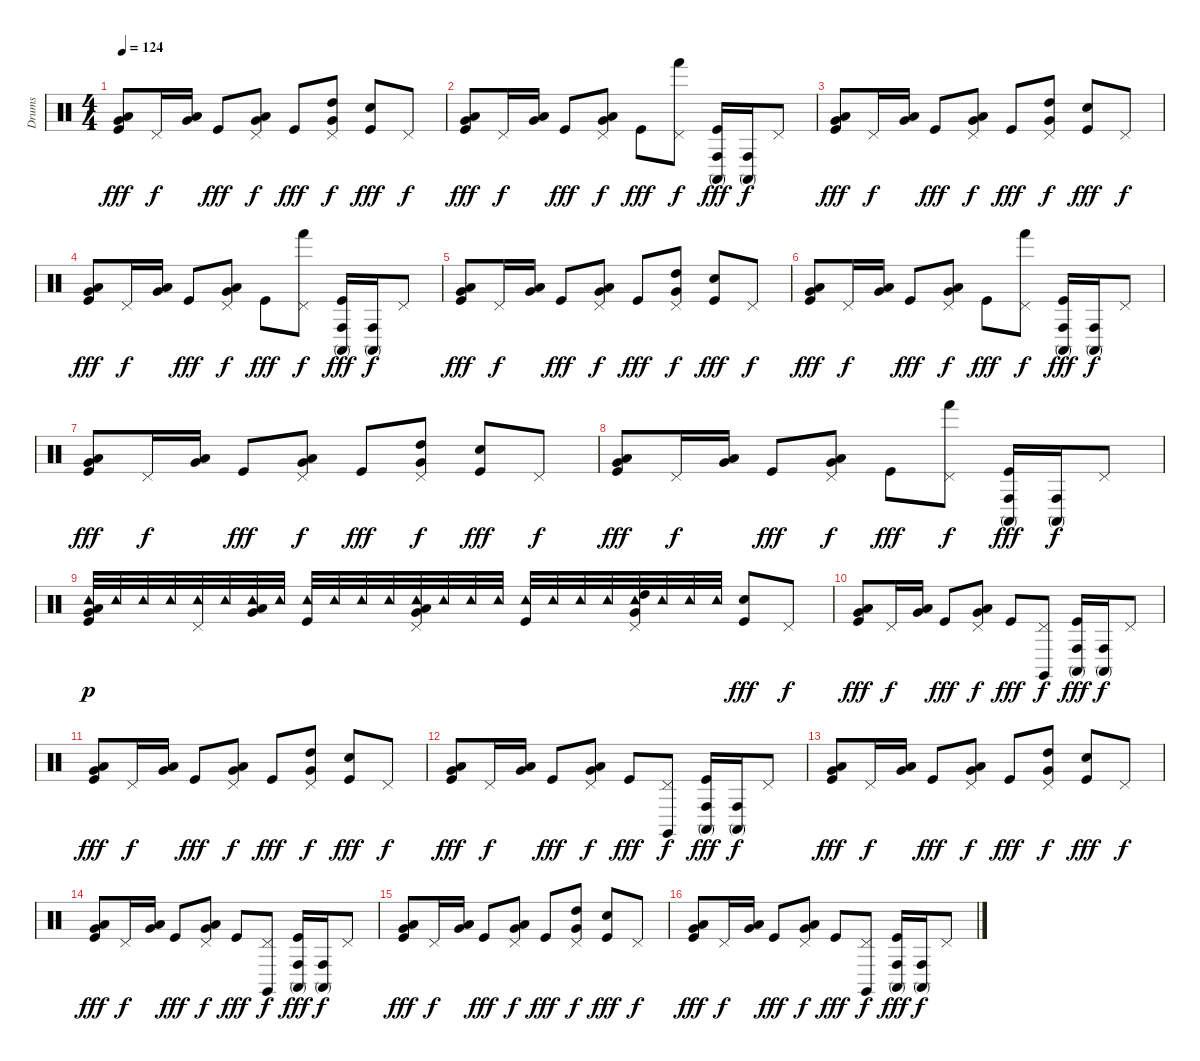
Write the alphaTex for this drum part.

\track ("Drums" "Drums") {instrument percussion}
\staff {score}
\articulation defaults
\ts (4 4)
\tempo 124
\clef neutral
\ks c
("Kick (hit)" "Very Low Tom (hit)" "Low Tom (hit)").8{dy fff} "Pedal Hi-Hat (hit)".16{dy f} ("Very Low Tom (hit)" "Low Tom (hit)").16 "Kick (hit)".8{dy fff} ("Pedal Hi-Hat (hit)" "Very Low Tom (hit)" "Low Tom (hit)").8{dy f} "Kick (hit)".8{dy fff} ("Pedal Hi-Hat (hit)" "High Tom (hit)" "Very Low Tom (hit)").8{dy f} ("Kick (hit)" "Electric Snare (hit)").8{dy fff} "Pedal Hi-Hat (hit)".8{dy f} |
("Kick (hit)" "Very Low Tom (hit)" "Low Tom (hit)").8{dy fff} "Pedal Hi-Hat (hit)".16{dy f} ("Very Low Tom (hit)" "Low Tom (hit)").16 "Kick (hit)".8{dy fff} ("Pedal Hi-Hat (hit)" "Very Low Tom (hit)" "Low Tom (hit)").8{dy f} "Kick (hit)".8{dy fff} ("Pedal Hi-Hat (hit)" "Hand (hit)").8{dy f} ("Kick (hit)" "Conga high (mute)" "Conga high (hit)").16{dy fff} ("Conga high (mute)" "Conga high (hit)").16{dy f} "Pedal Hi-Hat (hit)".8 |
("Kick (hit)" "Very Low Tom (hit)" "Low Tom (hit)").8{dy fff} "Pedal Hi-Hat (hit)".16{dy f} ("Very Low Tom (hit)" "Low Tom (hit)").16 "Kick (hit)".8{dy fff} ("Pedal Hi-Hat (hit)" "Very Low Tom (hit)" "Low Tom (hit)").8{dy f} "Kick (hit)".8{dy fff} ("Pedal Hi-Hat (hit)" "High Tom (hit)" "Very Low Tom (hit)").8{dy f} ("Kick (hit)" "Electric Snare (hit)").8{dy fff} "Pedal Hi-Hat (hit)".8{dy f} |
("Kick (hit)" "Very Low Tom (hit)" "Low Tom (hit)").8{dy fff} "Pedal Hi-Hat (hit)".16{dy f} ("Very Low Tom (hit)" "Low Tom (hit)").16 "Kick (hit)".8{dy fff} ("Pedal Hi-Hat (hit)" "Very Low Tom (hit)" "Low Tom (hit)").8{dy f} "Kick (hit)".8{dy fff} ("Pedal Hi-Hat (hit)" "Hand (hit)").8{dy f} ("Kick (hit)" "Conga high (mute)" "Conga high (hit)").16{dy fff} ("Conga high (mute)" "Conga high (hit)").16{dy f} "Pedal Hi-Hat (hit)".8 |
("Kick (hit)" "Very Low Tom (hit)" "Low Tom (hit)").8{dy fff} "Pedal Hi-Hat (hit)".16{dy f} ("Very Low Tom (hit)" "Low Tom (hit)").16 "Kick (hit)".8{dy fff} ("Pedal Hi-Hat (hit)" "Very Low Tom (hit)" "Low Tom (hit)").8{dy f} "Kick (hit)".8{dy fff} ("Pedal Hi-Hat (hit)" "High Tom (hit)" "Very Low Tom (hit)").8{dy f} ("Kick (hit)" "Electric Snare (hit)").8{dy fff} "Pedal Hi-Hat (hit)".8{dy f} |
("Kick (hit)" "Very Low Tom (hit)" "Low Tom (hit)").8{dy fff} "Pedal Hi-Hat (hit)".16{dy f} ("Very Low Tom (hit)" "Low Tom (hit)").16 "Kick (hit)".8{dy fff} ("Pedal Hi-Hat (hit)" "Very Low Tom (hit)" "Low Tom (hit)").8{dy f} "Kick (hit)".8{dy fff} ("Pedal Hi-Hat (hit)" "Hand (hit)").8{dy f} ("Kick (hit)" "Conga high (mute)" "Conga high (hit)").16{dy fff} ("Conga high (mute)" "Conga high (hit)").16{dy f} "Pedal Hi-Hat (hit)".8 |
("Kick (hit)" "Very Low Tom (hit)" "Low Tom (hit)").8{dy fff} "Pedal Hi-Hat (hit)".16{dy f} ("Very Low Tom (hit)" "Low Tom (hit)").16 "Kick (hit)".8{dy fff} ("Pedal Hi-Hat (hit)" "Very Low Tom (hit)" "Low Tom (hit)").8{dy f} "Kick (hit)".8{dy fff} ("Pedal Hi-Hat (hit)" "High Tom (hit)" "Very Low Tom (hit)").8{dy f} ("Kick (hit)" "Electric Snare (hit)").8{dy fff} "Pedal Hi-Hat (hit)".8{dy f} |
("Kick (hit)" "Very Low Tom (hit)" "Low Tom (hit)").8{dy fff} "Pedal Hi-Hat (hit)".16{dy f} ("Very Low Tom (hit)" "Low Tom (hit)").16 "Kick (hit)".8{dy fff} ("Pedal Hi-Hat (hit)" "Very Low Tom (hit)" "Low Tom (hit)").8{dy f} "Kick (hit)".8{dy fff} ("Pedal Hi-Hat (hit)" "Hand (hit)").8{dy f} ("Kick (hit)" "Conga high (mute)" "Conga high (hit)").16{dy fff} ("Conga high (mute)" "Conga high (hit)").16{dy f} "Pedal Hi-Hat (hit)".8 |
("Kick (hit)" "Very Low Tom (hit)" "Low Tom (hit)" "Tambourine (hit)").32{dy p} "Tambourine (hit)".32 "Tambourine (hit)".32 "Tambourine (hit)".32 ("Pedal Hi-Hat (hit)" "Tambourine (hit)").32 "Tambourine (hit)".32 ("Very Low Tom (hit)" "Low Tom (hit)" "Tambourine (hit)").32 "Tambourine (hit)".32 ("Kick (hit)" "Tambourine (hit)").32 "Tambourine (hit)".32 "Tambourine (hit)".32 "Tambourine (hit)".32 ("Pedal Hi-Hat (hit)" "Very Low Tom (hit)" "Low Tom (hit)" "Tambourine (hit)").32 "Tambourine (hit)".32 "Tambourine (hit)".32 "Tambourine (hit)".32 ("Kick (hit)" "Tambourine (hit)").32 "Tambourine (hit)".32 "Tambourine (hit)".32 "Tambourine (hit)".32 ("Pedal Hi-Hat (hit)" "High Tom (hit)" "Very Low Tom (hit)" "Tambourine (hit)").32 "Tambourine (hit)".32 "Tambourine (hit)".32 "Tambourine (hit)".32 ("Kick (hit)" "Electric Snare (hit)").8{dy fff} "Pedal Hi-Hat (hit)".8{dy f} |
("Kick (hit)" "Very Low Tom (hit)" "Low Tom (hit)").8{dy fff} "Pedal Hi-Hat (hit)".16{dy f} ("Very Low Tom (hit)" "Low Tom (hit)").16 "Kick (hit)".8{dy fff} ("Pedal Hi-Hat (hit)" "Very Low Tom (hit)" "Low Tom (hit)").8{dy f} "Kick (hit)".8{dy fff} ("Pedal Hi-Hat (hit)" "Claves (hit)").8{dy f} ("Kick (hit)" "Conga high (mute)" "Conga high (hit)").16{dy fff} ("Conga high (mute)" "Conga high (hit)").16{dy f} "Pedal Hi-Hat (hit)".8 |
("Kick (hit)" "Very Low Tom (hit)" "Low Tom (hit)").8{dy fff} "Pedal Hi-Hat (hit)".16{dy f} ("Very Low Tom (hit)" "Low Tom (hit)").16 "Kick (hit)".8{dy fff} ("Pedal Hi-Hat (hit)" "Very Low Tom (hit)" "Low Tom (hit)").8{dy f} "Kick (hit)".8{dy fff} ("Pedal Hi-Hat (hit)" "High Tom (hit)" "Very Low Tom (hit)").8{dy f} ("Kick (hit)" "Electric Snare (hit)").8{dy fff} "Pedal Hi-Hat (hit)".8{dy f} |
("Kick (hit)" "Very Low Tom (hit)" "Low Tom (hit)").8{dy fff} "Pedal Hi-Hat (hit)".16{dy f} ("Very Low Tom (hit)" "Low Tom (hit)").16 "Kick (hit)".8{dy fff} ("Pedal Hi-Hat (hit)" "Very Low Tom (hit)" "Low Tom (hit)").8{dy f} "Kick (hit)".8{dy fff} ("Pedal Hi-Hat (hit)" "Claves (hit)").8{dy f} ("Kick (hit)" "Conga high (mute)" "Conga high (hit)").16{dy fff} ("Conga high (mute)" "Conga high (hit)").16{dy f} "Pedal Hi-Hat (hit)".8 |
("Kick (hit)" "Very Low Tom (hit)" "Low Tom (hit)").8{dy fff} "Pedal Hi-Hat (hit)".16{dy f} ("Very Low Tom (hit)" "Low Tom (hit)").16 "Kick (hit)".8{dy fff} ("Pedal Hi-Hat (hit)" "Very Low Tom (hit)" "Low Tom (hit)").8{dy f} "Kick (hit)".8{dy fff} ("Pedal Hi-Hat (hit)" "High Tom (hit)" "Very Low Tom (hit)").8{dy f} ("Kick (hit)" "Electric Snare (hit)").8{dy fff} "Pedal Hi-Hat (hit)".8{dy f} |
("Kick (hit)" "Very Low Tom (hit)" "Low Tom (hit)").8{dy fff} "Pedal Hi-Hat (hit)".16{dy f} ("Very Low Tom (hit)" "Low Tom (hit)").16 "Kick (hit)".8{dy fff} ("Pedal Hi-Hat (hit)" "Very Low Tom (hit)" "Low Tom (hit)").8{dy f} "Kick (hit)".8{dy fff} ("Pedal Hi-Hat (hit)" "Claves (hit)").8{dy f} ("Kick (hit)" "Conga high (mute)" "Conga high (hit)").16{dy fff} ("Conga high (mute)" "Conga high (hit)").16{dy f} "Pedal Hi-Hat (hit)".8 |
("Kick (hit)" "Very Low Tom (hit)" "Low Tom (hit)").8{dy fff} "Pedal Hi-Hat (hit)".16{dy f} ("Very Low Tom (hit)" "Low Tom (hit)").16 "Kick (hit)".8{dy fff} ("Pedal Hi-Hat (hit)" "Very Low Tom (hit)" "Low Tom (hit)").8{dy f} "Kick (hit)".8{dy fff} ("Pedal Hi-Hat (hit)" "High Tom (hit)" "Very Low Tom (hit)").8{dy f} ("Kick (hit)" "Electric Snare (hit)").8{dy fff} "Pedal Hi-Hat (hit)".8{dy f} |
("Kick (hit)" "Very Low Tom (hit)" "Low Tom (hit)").8{dy fff} "Pedal Hi-Hat (hit)".16{dy f} ("Very Low Tom (hit)" "Low Tom (hit)").16 "Kick (hit)".8{dy fff} ("Pedal Hi-Hat (hit)" "Very Low Tom (hit)" "Low Tom (hit)").8{dy f} "Kick (hit)".8{dy fff} ("Pedal Hi-Hat (hit)" "Claves (hit)").8{dy f} ("Kick (hit)" "Conga high (mute)" "Conga high (hit)").16{dy fff} ("Conga high (mute)" "Conga high (hit)").16{dy f} "Pedal Hi-Hat (hit)".8
